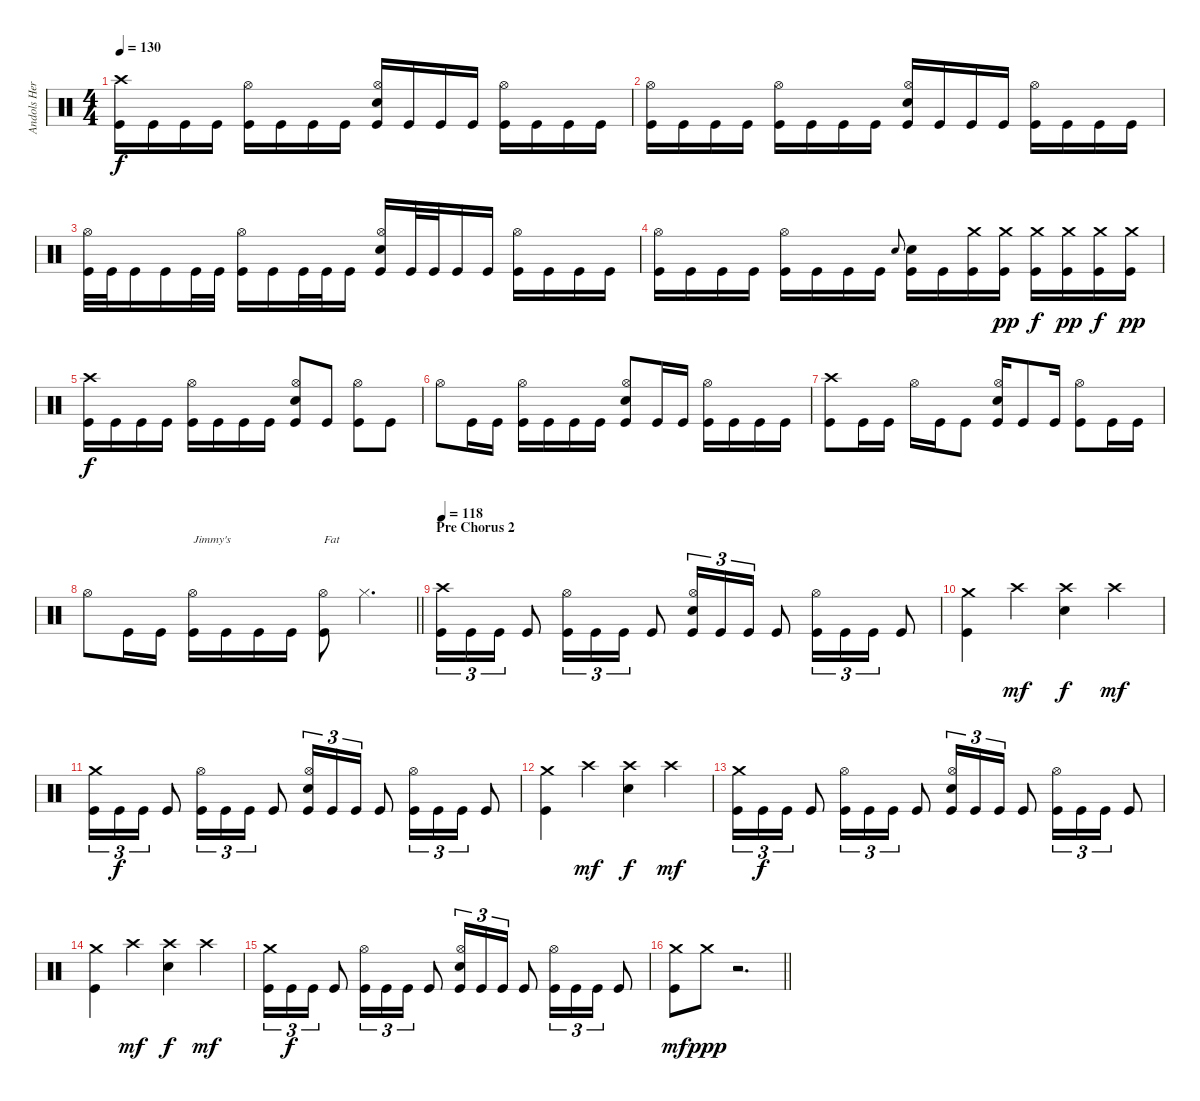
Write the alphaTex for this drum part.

\track ("Andols Herrick" "Andols Her") {instrument percussion}
\staff {score}
\articulation defaults
\ts (4 4)
\tempo 130
\clef neutral
\ks c
("Crash high (hit)" "Kick (hit)").16{dy f} "Kick (hit)".16 "Kick (hit)".16 "Kick (hit)".16 ("Hi-Hat (open)" "Kick (hit)").16 "Kick (hit)".16 "Kick (hit)".16 "Kick (hit)".16 ("Hi-Hat (open)" "Electric Snare (hit)" "Kick (hit)").16 "Kick (hit)".16 "Kick (hit)".16 "Kick (hit)".16 ("Hi-Hat (open)" "Kick (hit)").16 "Kick (hit)".16 "Kick (hit)".16 "Kick (hit)".16 |
("Hi-Hat (open)" "Kick (hit)").16 "Kick (hit)".16 "Kick (hit)".16 "Kick (hit)".16 ("Hi-Hat (open)" "Kick (hit)").16 "Kick (hit)".16 "Kick (hit)".16 "Kick (hit)".16 ("Hi-Hat (open)" "Electric Snare (hit)" "Kick (hit)").16 "Kick (hit)".16 "Kick (hit)".16 "Kick (hit)".16 ("Hi-Hat (open)" "Kick (hit)").16 "Kick (hit)".16 "Kick (hit)".16 "Kick (hit)".16 |
("Hi-Hat (open)" "Kick (hit)").32 "Kick (hit)".32 "Kick (hit)".16 "Kick (hit)".16 "Kick (hit)".32 "Kick (hit)".32 ("Hi-Hat (open)" "Kick (hit)").16 "Kick (hit)".16 "Kick (hit)".32 "Kick (hit)".32 "Kick (hit)".16 ("Hi-Hat (open)" "Electric Snare (hit)" "Kick (hit)").16 "Kick (hit)".32 "Kick (hit)".32 "Kick (hit)".16 "Kick (hit)".16 ("Hi-Hat (open)" "Kick (hit)").16 "Kick (hit)".16 "Kick (hit)".16 "Kick (hit)".16 |
("Hi-Hat (open)" "Kick (hit)").16 "Kick (hit)".16 "Kick (hit)".16 "Kick (hit)".16 ("Hi-Hat (open)" "Kick (hit)").16 "Kick (hit)".16 "Kick (hit)".16 "Kick (hit)".16 "Electric Snare (hit)".8{gr onbeat} ("Electric Snare (hit)" "Kick (hit)").16 "Kick (hit)".16 ("Crash medium (hit)" "Kick (hit)").16 ("Crash medium (hit)" "Kick (hit)").16{dy pp} ("Crash medium (hit)" "Kick (hit)").16{dy f} ("Crash medium (hit)" "Kick (hit)").16{dy pp} ("Crash medium (hit)" "Kick (hit)").16{dy f} ("Crash medium (hit)" "Kick (hit)").16{dy pp} |
("Crash high (hit)" "Kick (hit)").16{dy f} "Kick (hit)".16 "Kick (hit)".16 "Kick (hit)".16 ("Hi-Hat (open)" "Kick (hit)").16 "Kick (hit)".16 "Kick (hit)".16 "Kick (hit)".16 ("Hi-Hat (open)" "Electric Snare (hit)" "Kick (hit)").8 "Kick (hit)".8 ("Hi-Hat (open)" "Kick (hit)").8 "Kick (hit)".8 |
"Hi-Hat (open)".8 "Kick (hit)".16 "Kick (hit)".16 ("Hi-Hat (open)" "Kick (hit)").16 "Kick (hit)".16 "Kick (hit)".16 "Kick (hit)".16 ("Hi-Hat (open)" "Electric Snare (hit)" "Kick (hit)").8 "Kick (hit)".16 "Kick (hit)".16 ("Hi-Hat (open)" "Kick (hit)").16 "Kick (hit)".16 "Kick (hit)".16 "Kick (hit)".16 |
("Crash high (hit)" "Kick (hit)").8 "Kick (hit)".16 "Kick (hit)".16 "Hi-Hat (open)".16 "Kick (hit)".16 "Kick (hit)".8 ("Hi-Hat (open)" "Electric Snare (hit)" "Kick (hit)").16 "Kick (hit)".8 "Kick (hit)".16 ("Hi-Hat (open)" "Kick (hit)").8 "Kick (hit)".16 "Kick (hit)".16 |
\barLineRight lightlight "Hi-Hat (open)".8 "Kick (hit)".16 "Kick (hit)".16
("Hi-Hat (open)" "Kick (hit)").16{txt "Jimmy's "} "Kick (hit)".16 "Kick (hit)".16 "Kick (hit)".16 ("Hi-Hat (open)" "Kick (hit)").8{txt "Fat"} "Hi-Hat (closed)".4{d} |
\section ("" "Pre Chorus 2")
\tempo 118
("Crash high (hit)" "Kick (hit)").16{tu (3 2)} "Kick (hit)".16{tu (3 2)} "Kick (hit)".16{tu (3 2)} "Kick (hit)".8 ("Hi-Hat (open)" "Kick (hit)").16{tu (3 2)} "Kick (hit)".16{tu (3 2)} "Kick (hit)".16{tu (3 2)} "Kick (hit)".8 ("Hi-Hat (open)" "Electric Snare (hit)" "Kick (hit)").16{tu (3 2)} "Kick (hit)".16{tu (3 2)} "Kick (hit)".16{tu (3 2)} "Kick (hit)".8 ("Hi-Hat (open)" "Kick (hit)").16{tu (3 2)} "Kick (hit)".16{tu (3 2)} "Kick (hit)".16{tu (3 2)} "Kick (hit)".8 |
("Crash medium (hit)" "Kick (hit)").4 "Crash high (hit)".4{dy mf} ("Crash high (hit)" "Electric Snare (hit)").4{dy f} "Crash high (hit)".4{dy mf} |
("Crash medium (hit)" "Kick (hit)").16{tu (3 2)} "Kick (hit)".16{tu (3 2) dy f} "Kick (hit)".16{tu (3 2)} "Kick (hit)".8 ("Hi-Hat (open)" "Kick (hit)").16{tu (3 2)} "Kick (hit)".16{tu (3 2)} "Kick (hit)".16{tu (3 2)} "Kick (hit)".8 ("Hi-Hat (open)" "Electric Snare (hit)" "Kick (hit)").16{tu (3 2)} "Kick (hit)".16{tu (3 2)} "Kick (hit)".16{tu (3 2)} "Kick (hit)".8 ("Hi-Hat (open)" "Kick (hit)").16{tu (3 2)} "Kick (hit)".16{tu (3 2)} "Kick (hit)".16{tu (3 2)} "Kick (hit)".8 |
("Crash medium (hit)" "Kick (hit)").4 "Crash high (hit)".4{dy mf} ("Crash high (hit)" "Electric Snare (hit)").4{dy f} "Crash high (hit)".4{dy mf} |
("Crash medium (hit)" "Kick (hit)").16{tu (3 2)} "Kick (hit)".16{tu (3 2) dy f} "Kick (hit)".16{tu (3 2)} "Kick (hit)".8 ("Hi-Hat (open)" "Kick (hit)").16{tu (3 2)} "Kick (hit)".16{tu (3 2)} "Kick (hit)".16{tu (3 2)} "Kick (hit)".8 ("Hi-Hat (open)" "Electric Snare (hit)" "Kick (hit)").16{tu (3 2)} "Kick (hit)".16{tu (3 2)} "Kick (hit)".16{tu (3 2)} "Kick (hit)".8 ("Hi-Hat (open)" "Kick (hit)").16{tu (3 2)} "Kick (hit)".16{tu (3 2)} "Kick (hit)".16{tu (3 2)} "Kick (hit)".8 |
("Crash medium (hit)" "Kick (hit)").4 "Crash high (hit)".4{dy mf} ("Crash high (hit)" "Electric Snare (hit)").4{dy f} "Crash high (hit)".4{dy mf} |
("Crash medium (hit)" "Kick (hit)").16{tu (3 2)} "Kick (hit)".16{tu (3 2) dy f} "Kick (hit)".16{tu (3 2)} "Kick (hit)".8 ("Hi-Hat (open)" "Kick (hit)").16{tu (3 2)} "Kick (hit)".16{tu (3 2)} "Kick (hit)".16{tu (3 2)} "Kick (hit)".8 ("Hi-Hat (open)" "Electric Snare (hit)" "Kick (hit)").16{tu (3 2)} "Kick (hit)".16{tu (3 2)} "Kick (hit)".16{tu (3 2)} "Kick (hit)".8 ("Hi-Hat (open)" "Kick (hit)").16{tu (3 2)} "Kick (hit)".16{tu (3 2)} "Kick (hit)".16{tu (3 2)} "Kick (hit)".8 |
\barLineRight lightlight
("Crash medium (hit)" "Kick (hit)").8{dy mf} "Crash medium (hit)".8{dy ppp} r.2{d}
